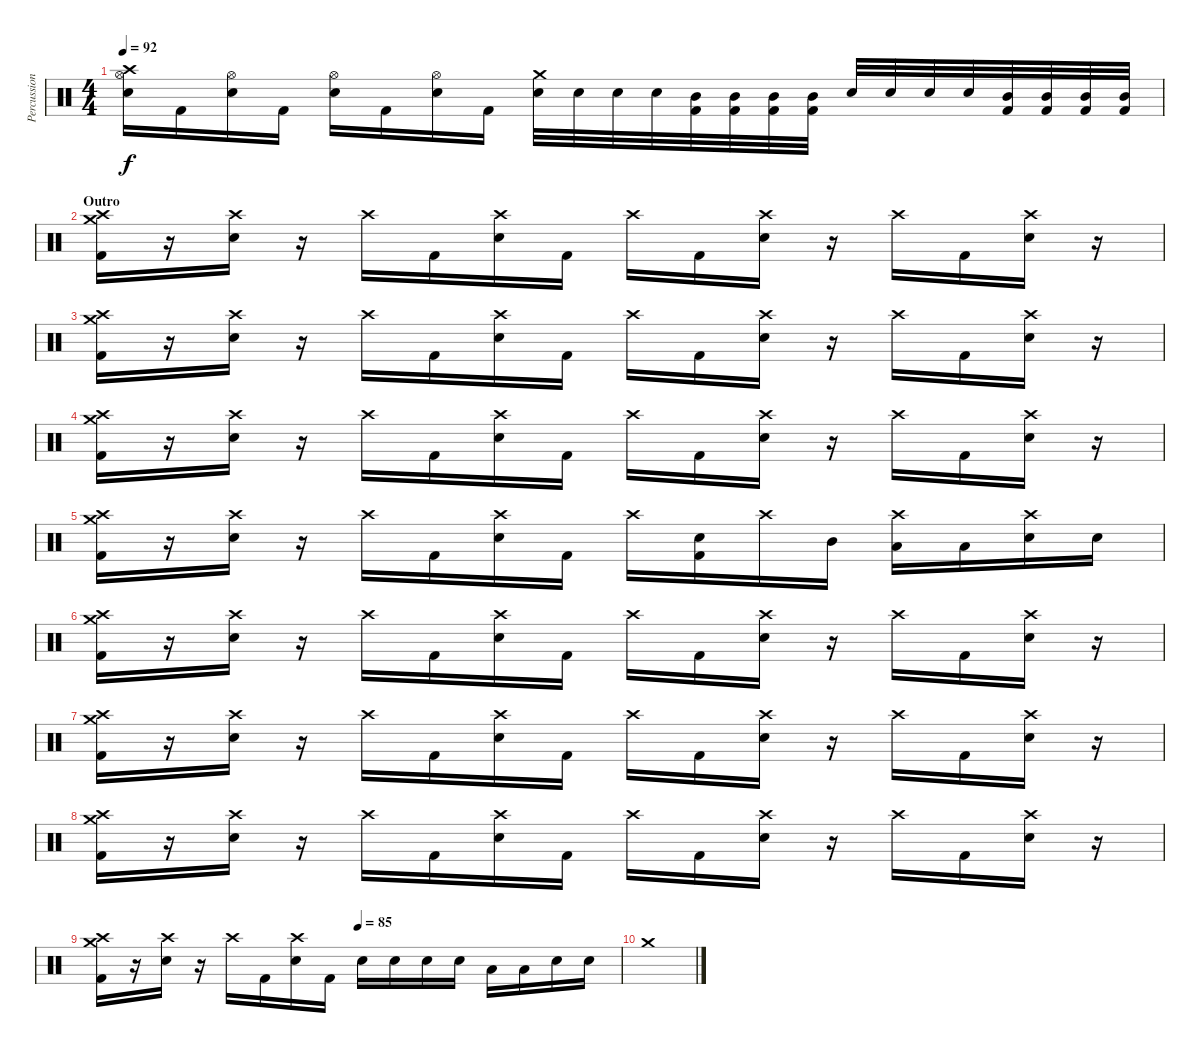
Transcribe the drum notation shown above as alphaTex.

\track ("Percussion" "Percussion") {instrument percussion}
\staff {score}
\articulation defaults
\ts (4 4)
\tempo 92
\clef neutral
\ks c
("Hi-Hat (open)" "Crash high (hit)" "Snare (hit) 2").16{dy f} "Kick (hit) 2".16 ("Hi-Hat (open)" "Snare (hit) 2").16 "Kick (hit) 2".16 ("Hi-Hat (open)" "Snare (hit) 2").16 "Kick (hit) 2".16 ("Hi-Hat (open)" "Snare (hit) 2").16 "Kick (hit) 2".16 ("Crash medium (hit)" "Snare (hit) 2").32 "Snare (hit) 2".32 "Snare (hit) 2".32 "Snare (hit) 2".32 ("Mid Tom (hit)" "Kick (hit) 2").32 ("Mid Tom (hit)" "Kick (hit) 2").32 ("Mid Tom (hit)" "Kick (hit) 2").32 ("Mid Tom (hit)" "Kick (hit) 2").32 "Snare (hit) 2".32 "Snare (hit) 2".32 "Snare (hit) 2".32 "Snare (hit) 2".32 ("Mid Tom (hit)" "Kick (hit) 2").32 ("Mid Tom (hit)" "Kick (hit) 2").32 ("Mid Tom (hit)" "Kick (hit) 2").32 ("Mid Tom (hit)" "Kick (hit) 2").32 |
\section ("" "Outro")
("Crash high (hit)" "Crash medium (hit)" "Kick (hit) 2").16 r.16 ("Crash high (hit)" "Snare (hit) 2").16 r.16 "Crash high (hit)".16 "Kick (hit) 2".16 ("Crash high (hit)" "Snare (hit) 2").16 "Kick (hit) 2".16 "Crash high (hit)".16 "Kick (hit) 2".16 ("Crash high (hit)" "Snare (hit) 2").16 r.16 "Crash high (hit)".16 "Kick (hit) 2".16 ("Crash high (hit)" "Snare (hit) 2").16 r.16 |
("Crash high (hit)" "Crash medium (hit)" "Kick (hit) 2").16 r.16 ("Crash high (hit)" "Snare (hit) 2").16 r.16 "Crash high (hit)".16 "Kick (hit) 2".16 ("Crash high (hit)" "Snare (hit) 2").16 "Kick (hit) 2".16 "Crash high (hit)".16 "Kick (hit) 2".16 ("Crash high (hit)" "Snare (hit) 2").16 r.16 "Crash high (hit)".16 "Kick (hit) 2".16 ("Crash high (hit)" "Snare (hit) 2").16 r.16 |
("Crash high (hit)" "Crash medium (hit)" "Kick (hit) 2").16 r.16 ("Crash high (hit)" "Snare (hit) 2").16 r.16 "Crash high (hit)".16 "Kick (hit) 2".16 ("Crash high (hit)" "Snare (hit) 2").16 "Kick (hit) 2".16 "Crash high (hit)".16 "Kick (hit) 2".16 ("Crash high (hit)" "Snare (hit) 2").16 r.16 "Crash high (hit)".16 "Kick (hit) 2".16 ("Crash high (hit)" "Snare (hit) 2").16 r.16 |
("Crash high (hit)" "Crash medium (hit)" "Kick (hit) 2").16 r.16 ("Crash high (hit)" "Snare (hit) 2").16 r.16 "Crash high (hit)".16 "Kick (hit) 2".16 ("Crash high (hit)" "Snare (hit) 2").16 "Kick (hit) 2".16 "Crash high (hit)".16 ("Snare (hit) 2" "Kick (hit) 2").16 "Crash high (hit)".16 "Mid Tom (hit)".16 ("Crash high (hit)" "Low Tom (hit)").16 "Low Tom (hit)".16 ("Crash high (hit)" "Snare (hit) 2").16 "Snare (hit) 2".16 |
("Crash high (hit)" "Crash medium (hit)" "Kick (hit) 2").16 r.16 ("Crash high (hit)" "Snare (hit) 2").16 r.16 "Crash high (hit)".16 "Kick (hit) 2".16 ("Crash high (hit)" "Snare (hit) 2").16 "Kick (hit) 2".16 "Crash high (hit)".16 "Kick (hit) 2".16 ("Crash high (hit)" "Snare (hit) 2").16 r.16 "Crash high (hit)".16 "Kick (hit) 2".16 ("Crash high (hit)" "Snare (hit) 2").16 r.16 |
("Crash high (hit)" "Crash medium (hit)" "Kick (hit) 2").16 r.16 ("Crash high (hit)" "Snare (hit) 2").16 r.16 "Crash high (hit)".16 "Kick (hit) 2".16 ("Crash high (hit)" "Snare (hit) 2").16 "Kick (hit) 2".16 "Crash high (hit)".16 "Kick (hit) 2".16 ("Crash high (hit)" "Snare (hit) 2").16 r.16 "Crash high (hit)".16 "Kick (hit) 2".16 ("Crash high (hit)" "Snare (hit) 2").16 r.16 |
("Crash high (hit)" "Crash medium (hit)" "Kick (hit) 2").16 r.16 ("Crash high (hit)" "Snare (hit) 2").16 r.16 "Crash high (hit)".16 "Kick (hit) 2".16 ("Crash high (hit)" "Snare (hit) 2").16 "Kick (hit) 2".16 "Crash high (hit)".16 "Kick (hit) 2".16 ("Crash high (hit)" "Snare (hit) 2").16 r.16 "Crash high (hit)".16 "Kick (hit) 2".16 ("Crash high (hit)" "Snare (hit) 2").16 r.16 |
\tempo (85 0.5)
("Crash high (hit)" "Crash medium (hit)" "Kick (hit) 2").16 r.16 ("Crash high (hit)" "Snare (hit) 2").16 r.16 "Crash high (hit)".16 "Kick (hit) 2".16 ("Crash high (hit)" "Snare (hit) 2").16 "Kick (hit) 2".16 "Snare (hit) 2".16 "Snare (hit) 2".16 "Snare (hit) 2".16 "Snare (hit) 2".16 "Low Tom (hit)".16 "Low Tom (hit)".16 "Snare (hit) 2".16 "Snare (hit) 2".16 |
"Crash medium (hit)".1
